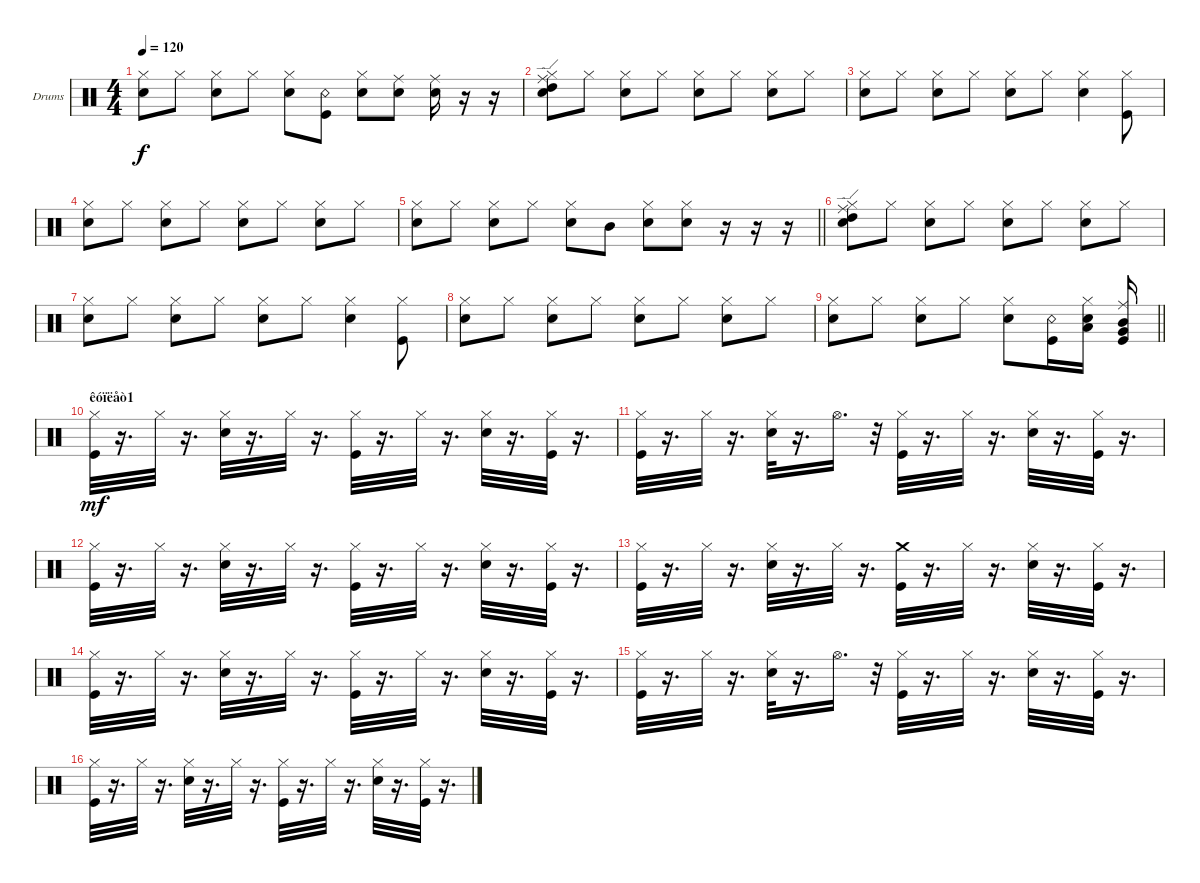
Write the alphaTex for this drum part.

\bracketExtendMode groupsimilarinstruments
\firstSystemTrackNameOrientation horizontal
\otherSystemsTrackNameOrientation horizontal
\track ("Drumkit" "Drums") {instrument percussion}
\staff {score}
\articulation defaults
\ts (4 4)
\tempo 120
\clef neutral
\ks c
("Hi-Hat (closed)" "Snare (hit) 2").8{dy f} "Hi-Hat (closed)".8 ("Hi-Hat (closed)" "Snare (hit) 2").8 "Hi-Hat (closed)".8 ("Hi-Hat (closed)" "Snare (hit) 2").8 ("Snare (rim shot)" "Kick (hit)").8 ("Snare (hit) 2" "Hi-Hat (closed)").8 ("Snare (hit) 2" "Ride (middle)").8 ("Snare (hit) 2" "Ride (middle)").16 r.16 r.16 |
("Hi-Hat (closed)" "Snare (hit) 2" "Ride (edge)" "High Tom (hit)").8 "Hi-Hat (closed)".8 ("Hi-Hat (closed)" "Snare (hit) 2").8 "Hi-Hat (closed)".8 ("Hi-Hat (closed)" "Snare (hit) 2").8 "Hi-Hat (closed)".8 ("Hi-Hat (closed)" "Snare (hit) 2").8 "Hi-Hat (closed)".8 |
("Hi-Hat (closed)" "Snare (hit) 2").8 "Hi-Hat (closed)".8 ("Hi-Hat (closed)" "Snare (hit) 2").8 "Hi-Hat (closed)".8 ("Hi-Hat (closed)" "Snare (hit) 2").8 "Hi-Hat (closed)".8 ("Hi-Hat (closed)" "Snare (hit) 2").4 ("Hi-Hat (closed)" "Kick (hit)").8 |
("Hi-Hat (closed)" "Snare (hit) 2").8 "Hi-Hat (closed)".8 ("Hi-Hat (closed)" "Snare (hit) 2").8 "Hi-Hat (closed)".8 ("Hi-Hat (closed)" "Snare (hit) 2").8 "Hi-Hat (closed)".8 ("Hi-Hat (closed)" "Snare (hit) 2").8 "Hi-Hat (closed)".8 |
\barLineRight lightlight
("Hi-Hat (closed)" "Snare (hit) 2").8 "Hi-Hat (closed)".8 ("Hi-Hat (closed)" "Snare (hit) 2").8 "Hi-Hat (closed)".8 ("Hi-Hat (closed)" "Snare (hit) 2").8 "Mid Tom (hit)".8 ("Snare (hit) 2" "Hi-Hat (closed)").8 ("Hi-Hat (closed)" "Snare (hit) 2").8 r.16 r.16 r.16 |
("Hi-Hat (closed)" "Snare (hit) 2" "Ride (edge)" "High Tom (hit)").8 "Hi-Hat (closed)".8 ("Hi-Hat (closed)" "Snare (hit) 2").8 "Hi-Hat (closed)".8 ("Hi-Hat (closed)" "Snare (hit) 2").8 "Hi-Hat (closed)".8 ("Hi-Hat (closed)" "Snare (hit) 2").8 "Hi-Hat (closed)".8 |
("Hi-Hat (closed)" "Snare (hit) 2").8 "Hi-Hat (closed)".8 ("Hi-Hat (closed)" "Snare (hit) 2").8 "Hi-Hat (closed)".8 ("Hi-Hat (closed)" "Snare (hit) 2").8 "Hi-Hat (closed)".8 ("Hi-Hat (closed)" "Snare (hit) 2").4 ("Hi-Hat (closed)" "Kick (hit)").8 |
("Hi-Hat (closed)" "Snare (hit) 2").8 "Hi-Hat (closed)".8 ("Hi-Hat (closed)" "Snare (hit) 2").8 "Hi-Hat (closed)".8 ("Hi-Hat (closed)" "Snare (hit) 2").8 "Hi-Hat (closed)".8 ("Hi-Hat (closed)" "Snare (hit) 2").8 "Hi-Hat (closed)".8 |
\barLineRight lightlight
("Hi-Hat (closed)" "Snare (hit) 2").8 "Hi-Hat (closed)".8 ("Hi-Hat (closed)" "Snare (hit) 2").8 "Hi-Hat (closed)".8 ("Hi-Hat (closed)" "Snare (hit) 2").8 ("Snare (rim shot)" "Kick (hit)").16 ("Hi-Hat (closed)" "Snare (hit) 2" "Low Tom (hit)").16 ("Very Low Tom (hit)" "Kick (hit)" "Mid Tom (hit)" "Ride (middle)").16 |
\section ("" "êóïëåò1")
("Hi-Hat (closed)" "Kick (hit)").32{dy mf} r.16{d} "Hi-Hat (closed)".32 r.16{d} ("Hi-Hat (closed)" "Snare (hit) 2").32 r.16{d} "Hi-Hat (closed)".32 r.16{d} ("Hi-Hat (closed)" "Kick (hit)").32 r.16{d} "Hi-Hat (closed)".32 r.16{d} ("Hi-Hat (closed)" "Snare (hit) 2").32 r.16{d} ("Hi-Hat (closed)" "Kick (hit)").32 r.16{d} |
("Hi-Hat (closed)" "Kick (hit)").32 r.16{d} "Hi-Hat (closed)".32 r.16{d} ("Hi-Hat (closed)" "Snare (hit) 2").32 r.16{d} "Hi-Hat (open)".16{d} r.32 ("Hi-Hat (closed)" "Kick (hit)").32 r.16{d} "Hi-Hat (closed)".32 r.16{d} ("Hi-Hat (closed)" "Snare (hit) 2").32 r.16{d} ("Hi-Hat (closed)" "Kick (hit)").32 r.16{d} |
("Hi-Hat (closed)" "Kick (hit)").32 r.16{d} "Hi-Hat (closed)".32 r.16{d} ("Hi-Hat (closed)" "Snare (hit) 2").32 r.16{d} "Hi-Hat (closed)".32 r.16{d} ("Hi-Hat (closed)" "Kick (hit)").32 r.16{d} "Hi-Hat (closed)".32 r.16{d} ("Hi-Hat (closed)" "Snare (hit) 2").32 r.16{d} ("Hi-Hat (closed)" "Kick (hit)").32 r.16{d} |
("Hi-Hat (closed)" "Kick (hit)").32 r.16{d} "Hi-Hat (closed)".32 r.16{d} ("Hi-Hat (closed)" "Snare (hit) 2").32 r.16{d} "Hi-Hat (closed)".32 r.16{d} ("Crash medium (hit)" "Kick (hit)").32 r.16{d} "Hi-Hat (closed)".32 r.16{d} ("Hi-Hat (closed)" "Snare (hit) 2").32 r.16{d} ("Hi-Hat (closed)" "Kick (hit)").32 r.16{d} |
("Hi-Hat (closed)" "Kick (hit)").32 r.16{d} "Hi-Hat (closed)".32 r.16{d} ("Hi-Hat (closed)" "Snare (hit) 2").32 r.16{d} "Hi-Hat (closed)".32 r.16{d} ("Hi-Hat (closed)" "Kick (hit)").32 r.16{d} "Hi-Hat (closed)".32 r.16{d} ("Hi-Hat (closed)" "Snare (hit) 2").32 r.16{d} ("Hi-Hat (closed)" "Kick (hit)").32 r.16{d} |
("Hi-Hat (closed)" "Kick (hit)").32 r.16{d} "Hi-Hat (closed)".32 r.16{d} ("Hi-Hat (closed)" "Snare (hit) 2").32 r.16{d} "Hi-Hat (open)".16{d} r.32 ("Hi-Hat (closed)" "Kick (hit)").32 r.16{d} "Hi-Hat (closed)".32 r.16{d} ("Hi-Hat (closed)" "Snare (hit) 2").32 r.16{d} ("Hi-Hat (closed)" "Kick (hit)").32 r.16{d} |
("Hi-Hat (closed)" "Kick (hit)").32 r.16{d} "Hi-Hat (closed)".32 r.16{d} ("Hi-Hat (closed)" "Snare (hit) 2").32 r.16{d} "Hi-Hat (closed)".32 r.16{d} ("Hi-Hat (closed)" "Kick (hit)").32 r.16{d} "Hi-Hat (closed)".32 r.16{d} ("Hi-Hat (closed)" "Snare (hit) 2").32 r.16{d} ("Hi-Hat (closed)" "Kick (hit)").32 r.16{d}
